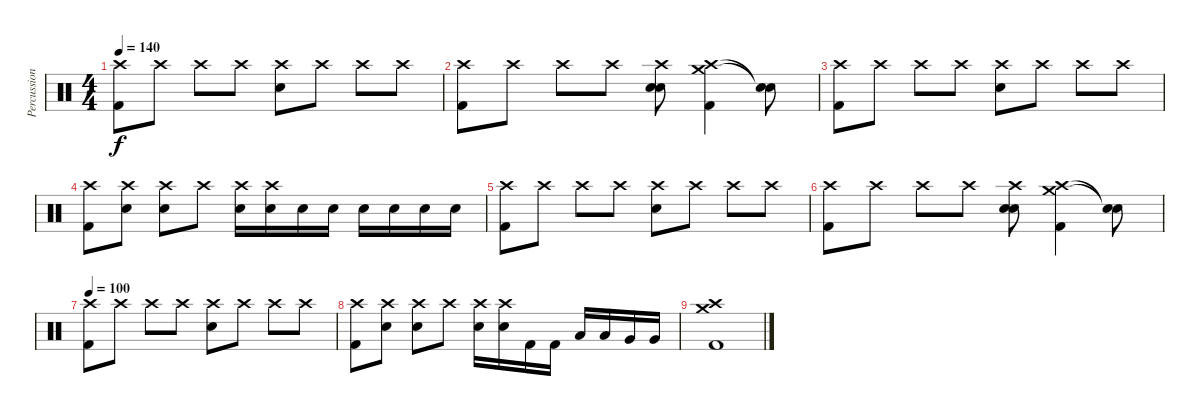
\track ("Percussion" "Percussion") {instrument percussion}
\staff {score}
\articulation defaults
\ts (4 4)
\tempo 140
\clef neutral
\ks c
("Crash high (hit)" "Kick (hit) 2").8{dy f} "Crash high (hit)"{x}.8 "Crash high (hit)".8 "Crash high (hit)"{x}.8 ("Crash high (hit)" "Electric Snare (hit)").8 "Crash high (hit)"{x}.8 "Crash high (hit)".8 "Crash high (hit)"{x}.8 |
("Crash high (hit)" "Kick (hit) 2").8 "Crash high (hit)"{x}.8 "Crash high (hit)".8 "Crash high (hit)"{x}.8 ("Crash high (hit)" "Electric Snare (hit)" "Snare (hit) 2").8 ("Crash high (hit)"{x} "Crash medium (hit)" "Kick (hit) 2").4 ("Snare (hit)"{t} "Snare (hit)"{t}).8 |
("Crash high (hit)" "Kick (hit) 2").8 "Crash high (hit)"{x}.8 "Crash high (hit)".8 "Crash high (hit)"{x}.8 ("Crash high (hit)" "Electric Snare (hit)").8 "Crash high (hit)"{x}.8 "Crash high (hit)".8 "Crash high (hit)"{x}.8 |
("Crash high (hit)" "Kick (hit) 2").8 ("Crash high (hit)"{x} "Electric Snare (hit)").8 ("Crash high (hit)" "Electric Snare (hit)").8 "Crash high (hit)"{x}.8 ("Crash high (hit)" "Electric Snare (hit)").16 ("Crash high (hit)"{x} "Electric Snare (hit)").16 "Electric Snare (hit)".16 "Electric Snare (hit)".16 "Electric Snare (hit)".16 "Electric Snare (hit)".16 "Electric Snare (hit)".16 "Electric Snare (hit)".16 |
("Crash high (hit)" "Kick (hit) 2").8 "Crash high (hit)"{x}.8 "Crash high (hit)".8 "Crash high (hit)"{x}.8 ("Crash high (hit)" "Electric Snare (hit)").8 "Crash high (hit)"{x}.8 "Crash high (hit)".8 "Crash high (hit)"{x}.8 |
("Crash high (hit)" "Kick (hit) 2").8 "Crash high (hit)"{x}.8 "Crash high (hit)".8 "Crash high (hit)"{x}.8 ("Crash high (hit)" "Electric Snare (hit)" "Snare (hit) 2").8 ("Crash high (hit)"{x} "Crash medium (hit)" "Kick (hit) 2").4 ("Snare (hit)"{t} "Snare (hit)"{t}).8 |
\tempo 100
("Crash high (hit)" "Kick (hit) 2").8 "Crash high (hit)"{x}.8 "Crash high (hit)".8 "Crash high (hit)"{x}.8 ("Crash high (hit)" "Electric Snare (hit)").8 "Crash high (hit)"{x}.8 "Crash high (hit)".8 "Crash high (hit)"{x}.8 |
("Crash high (hit)" "Kick (hit) 2").8 ("Crash high (hit)"{x} "Electric Snare (hit)").8 ("Crash high (hit)" "Electric Snare (hit)").8 "Crash high (hit)"{x}.8 ("Crash high (hit)" "Electric Snare (hit)").16 ("Crash high (hit)"{x} "Electric Snare (hit)").16 "Kick (hit) 2".16 "Kick (hit) 2".16 "Low Tom (hit)".16 "Low Tom (hit)".16 "Very Low Tom (hit)".16 "Very Low Tom (hit)".16 |
("Crash high (hit)" "Crash medium (hit)" "Kick (hit) 2").1
